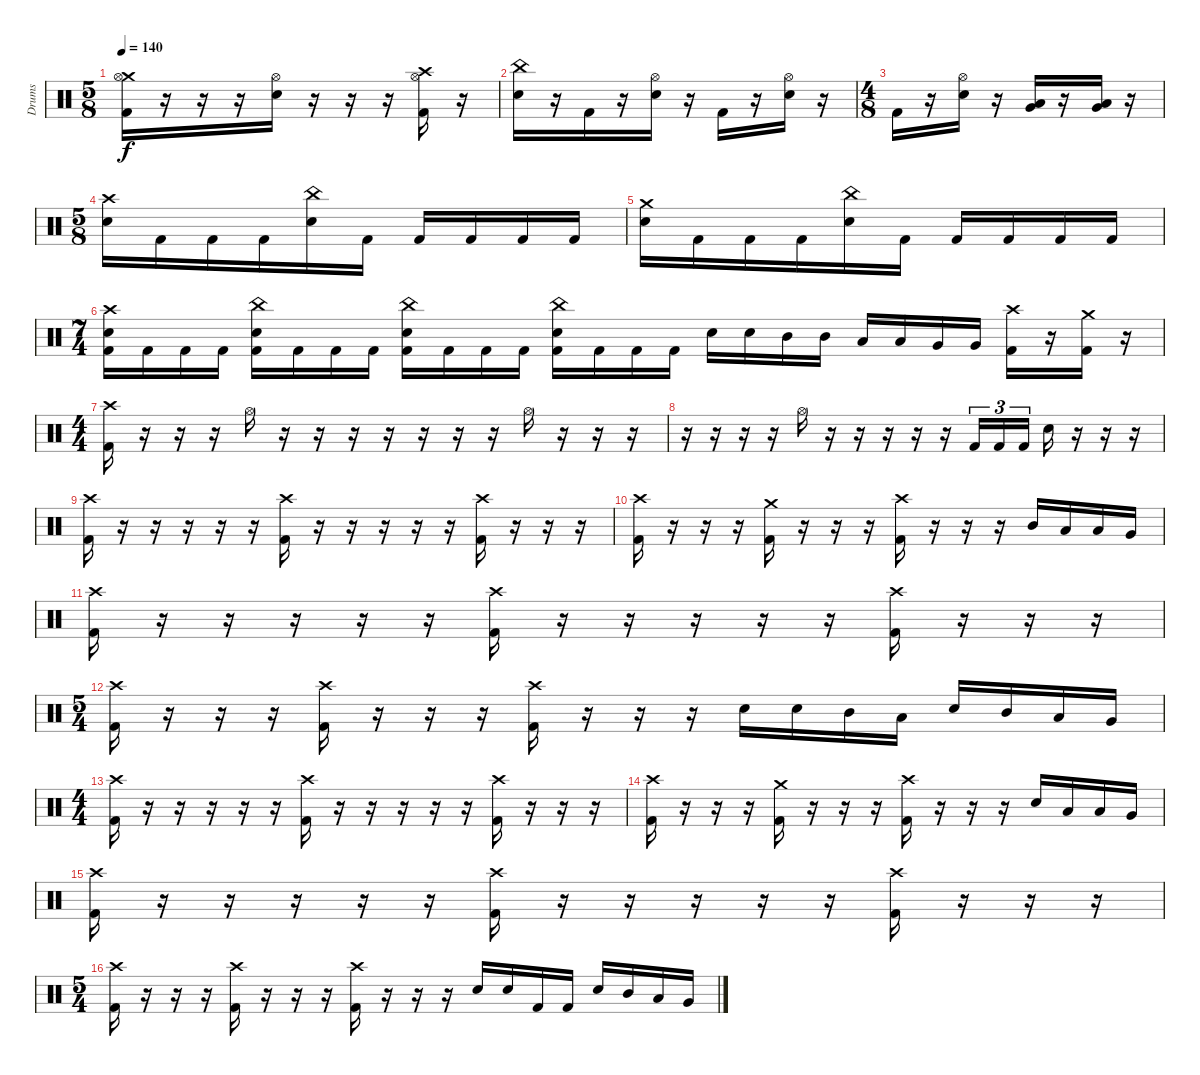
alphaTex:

\track ("Drums" "Drums") {instrument percussion}
\staff {score}
\articulation defaults
\ts (5 8)
\tempo 140
\clef neutral
\ks c
("Crash medium (hit)" "Hi-Hat (open)" "Kick (hit) 2").16{dy f} r.16 r.16 r.16 ("Hi-Hat (open)" "Electric Snare (hit)").16 r.16 r.16 r.16 ("Crash high (hit)" "Hi-Hat (open)" "Kick (hit) 2").16 r.16 |
("China (hit)" "Electric Snare (hit)").16 r.16 "Kick (hit) 2".16 r.16 ("Hi-Hat (open)" "Electric Snare (hit)").16 r.16 "Kick (hit) 2".16 r.16 ("Hi-Hat (open)" "Electric Snare (hit)").16 r.16 |
\ts (4 8)
"Kick (hit) 2".16 r.16 ("Hi-Hat (open)" "Electric Snare (hit)").16 r.16 ("Very Low Tom (hit)" "Low Tom (hit)").16 r.16 ("Very Low Tom (hit)" "Low Tom (hit)").16 r.16 |
\ts (5 8)
("Crash high (hit)" "Electric Snare (hit)").16 "Kick (hit) 2".16 "Kick (hit) 2".16 "Kick (hit) 2".16 ("China (hit)" "Electric Snare (hit)").16 "Kick (hit) 2".16 "Kick (hit) 2".16 "Kick (hit) 2".16 "Kick (hit) 2".16 "Kick (hit) 2".16 |
("Crash medium (hit)" "Electric Snare (hit)").16 "Kick (hit) 2".16 "Kick (hit) 2".16 "Kick (hit) 2".16 ("China (hit)" "Electric Snare (hit)").16 "Kick (hit) 2".16 "Kick (hit) 2".16 "Kick (hit) 2".16 "Kick (hit) 2".16 "Kick (hit) 2".16 |
\ts (7 4)
("Crash high (hit)" "Electric Snare (hit)" "Kick (hit) 2").16 "Kick (hit) 2".16 "Kick (hit) 2".16 "Kick (hit) 2".16 ("China (hit)" "Electric Snare (hit)" "Kick (hit) 2").16 "Kick (hit) 2".16 "Kick (hit) 2".16 "Kick (hit) 2".16 ("China (hit)" "Electric Snare (hit)" "Kick (hit) 2").16 "Kick (hit) 2".16 "Kick (hit) 2".16 "Kick (hit) 2".16 ("China (hit)" "Electric Snare (hit)" "Kick (hit) 2").16 "Kick (hit) 2".16 "Kick (hit) 2".16 "Kick (hit) 2".16 "Electric Snare (hit)".16 "Electric Snare (hit)".16 "Mid Tom (hit)".16 "Mid Tom (hit)".16 "Low Tom (hit)".16 "Low Tom (hit)".16 "Very Low Tom (hit)".16 "Very Low Tom (hit)".16 ("Crash high (hit)" "Kick (hit) 2").16 r.16 ("Crash medium (hit)" "Kick (hit) 2").16 r.16 |
\ts (4 4)
("Crash high (hit)" "Kick (hit) 2").16 r.16 r.16 r.16 "Hi-Hat (open)".16 r.16 r.16 r.16 r.16 r.16 r.16 r.16 "Hi-Hat (open)".16 r.16 r.16 r.16 |
r.16 r.16 r.16 r.16 "Hi-Hat (open)".16 r.16 r.16 r.16 r.16 r.16 "Kick (hit) 2".16{tu (3 2)} "Kick (hit) 2".16{tu (3 2)} "Kick (hit) 2".16{tu (3 2)} "Electric Snare (hit)".16 r.16 r.16 r.16 |
("Crash high (hit)" "Kick (hit) 2").16 r.16 r.16 r.16 r.16 r.16 ("Crash high (hit)" "Kick (hit) 2").16 r.16 r.16 r.16 r.16 r.16 ("Crash high (hit)" "Kick (hit) 2").16 r.16 r.16 r.16 |
("Crash high (hit)" "Kick (hit) 2").16 r.16 r.16 r.16 ("Crash medium (hit)" "Kick (hit) 2").16 r.16 r.16 r.16 ("Crash high (hit)" "Kick (hit) 2").16 r.16 r.16 r.16 "Mid Tom (hit)".16 "Low Tom (hit)".16 "Low Tom (hit)".16 "Very Low Tom (hit)".16 |
("Crash high (hit)" "Kick (hit) 2").16 r.16 r.16 r.16 r.16 r.16 ("Crash high (hit)" "Kick (hit) 2").16 r.16 r.16 r.16 r.16 r.16 ("Crash high (hit)" "Kick (hit) 2").16 r.16 r.16 r.16 |
\ts (5 4)
("Crash high (hit)" "Kick (hit) 2").16 r.16 r.16 r.16 ("Crash high (hit)" "Kick (hit) 2").16 r.16 r.16 r.16 ("Crash high (hit)" "Kick (hit) 2").16 r.16 r.16 r.16 "Electric Snare (hit)".16 "Electric Snare (hit)".16 "Mid Tom (hit)".16 "Low Tom (hit)".16 "Electric Snare (hit)".16 "Mid Tom (hit)".16 "Low Tom (hit)".16 "Very Low Tom (hit)".16 |
\ts (4 4)
("Crash high (hit)" "Kick (hit) 2").16 r.16 r.16 r.16 r.16 r.16 ("Crash high (hit)" "Kick (hit) 2").16 r.16 r.16 r.16 r.16 r.16 ("Crash high (hit)" "Kick (hit) 2").16 r.16 r.16 r.16 |
("Crash high (hit)" "Kick (hit) 2").16 r.16 r.16 r.16 ("Crash medium (hit)" "Kick (hit) 2").16 r.16 r.16 r.16 ("Crash high (hit)" "Kick (hit) 2").16 r.16 r.16 r.16 "Electric Snare (hit)".16 "Low Tom (hit)".16 "Low Tom (hit)".16 "Very Low Tom (hit)".16 |
("Crash high (hit)" "Kick (hit) 2").16 r.16 r.16 r.16 r.16 r.16 ("Crash high (hit)" "Kick (hit) 2").16 r.16 r.16 r.16 r.16 r.16 ("Crash high (hit)" "Kick (hit) 2").16 r.16 r.16 r.16 |
\ts (5 4)
("Crash high (hit)" "Kick (hit) 2").16 r.16 r.16 r.16 ("Crash high (hit)" "Kick (hit) 2").16 r.16 r.16 r.16 ("Crash high (hit)" "Kick (hit) 2").16 r.16 r.16 r.16 "Electric Snare (hit)".16 "Electric Snare (hit)".16 "Kick (hit) 2".16 "Kick (hit) 2".16 "Electric Snare (hit)".16 "Mid Tom (hit)".16 "Low Tom (hit)".16 "Very Low Tom (hit)".16
